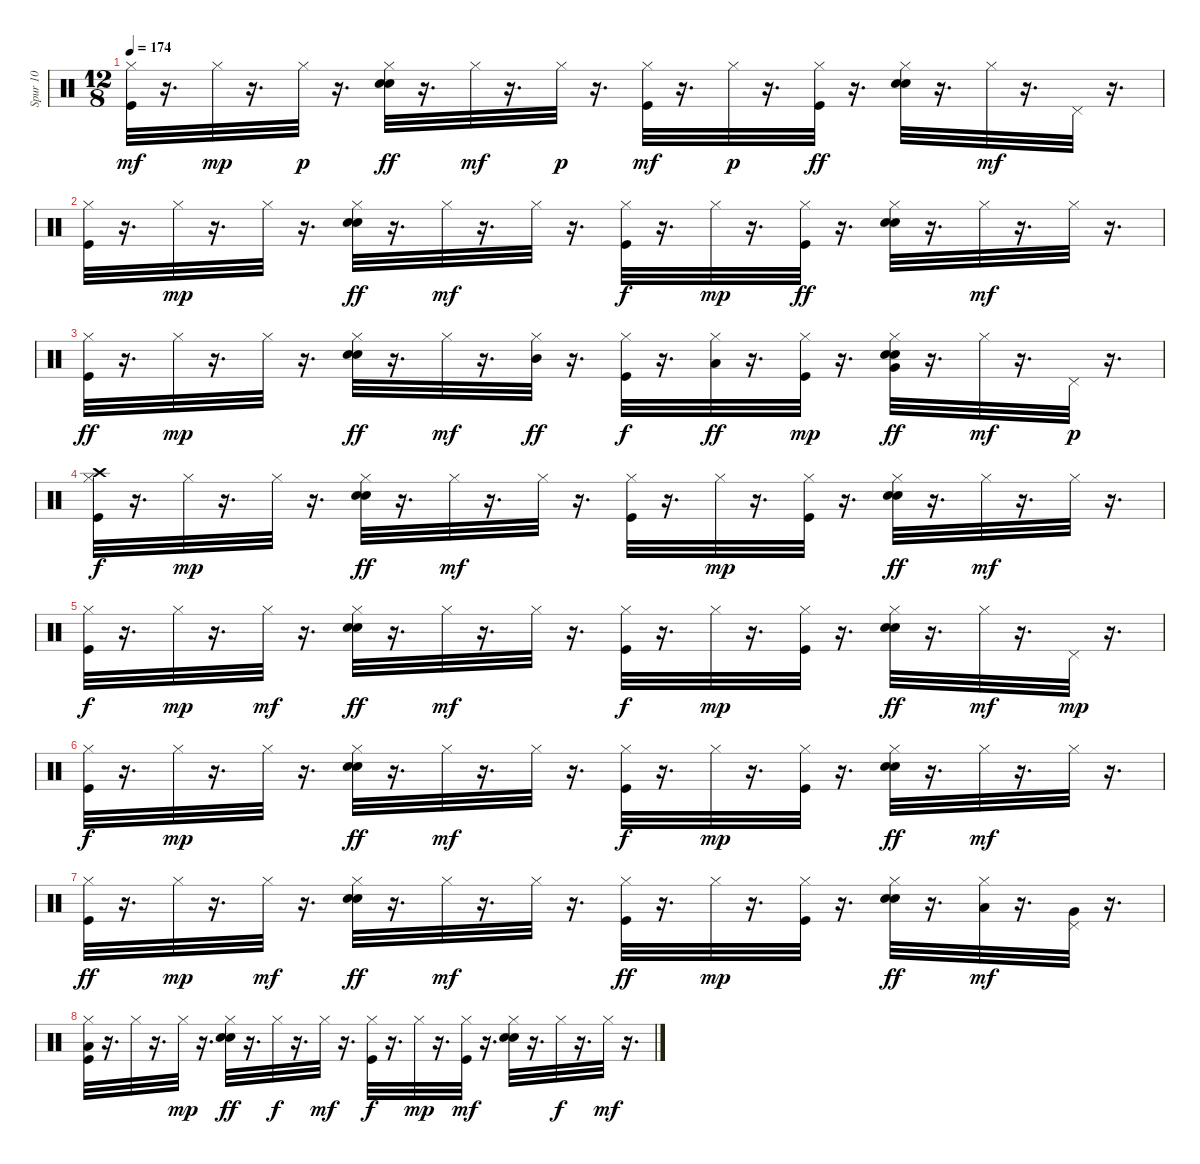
\track ("Spur 10" "Spur 10") {instrument percussion}
\staff {score}
\articulation defaults
\ts (12 8)
\tempo 174
\clef neutral
\ks c
("Hi-Hat (closed)" "Kick (hit)").32{dy mf} r.16{d} "Hi-Hat (closed)".32{dy mp} r.16{d} "Hi-Hat (closed)".32{dy p} r.16{d} ("Hi-Hat (closed)" "Electric Snare (hit)" "Hand Clap (hit)").32{dy ff} r.16{d} "Hi-Hat (closed)".32{dy mf} r.16{d} "Hi-Hat (closed)".32{dy p} r.16{d} ("Hi-Hat (closed)" "Kick (hit)").32{dy mf} r.16{d} "Hi-Hat (closed)".32{dy p} r.16{d} ("Hi-Hat (closed)" "Kick (hit)").32{dy ff} r.16{d} ("Hi-Hat (closed)" "Hand Clap (hit)" "Electric Snare (hit)").32 r.16{d} "Hi-Hat (closed)".32{dy mf} r.16{d} "Pedal Hi-Hat (hit)".32 r.16{d} |
("Hi-Hat (closed)" "Kick (hit)").32 r.16{d} "Hi-Hat (closed)".32{dy mp} r.16{d} "Hi-Hat (closed)".32 r.16{d} ("Hi-Hat (closed)" "Electric Snare (hit)" "Hand Clap (hit)").32{dy ff} r.16{d} "Hi-Hat (closed)".32{dy mf} r.16{d} "Hi-Hat (closed)".32 r.16{d} ("Hi-Hat (closed)" "Kick (hit)").32{dy f} r.16{d} "Hi-Hat (closed)".32{dy mp} r.16{d} ("Hi-Hat (closed)" "Kick (hit)").32{dy ff} r.16{d} ("Hi-Hat (closed)" "Hand Clap (hit)" "Electric Snare (hit)").32 r.16{d} "Hi-Hat (closed)".32{dy mf} r.16{d} "Hi-Hat (closed)".32 r.16{d} |
("Hi-Hat (closed)" "Kick (hit)").32{dy ff} r.16{d} "Hi-Hat (closed)".32{dy mp} r.16{d} "Hi-Hat (closed)".32 r.16{d} ("Hi-Hat (closed)" "Hand Clap (hit)" "Electric Snare (hit)").32{dy ff} r.16{d} "Hi-Hat (closed)".32{dy mf} r.16{d} ("Hi-Hat (closed)" "Mid Tom (hit)").32{dy ff} r.16{d} ("Hi-Hat (closed)" "Kick (hit)").32{dy f} r.16{d} ("Hi-Hat (closed)" "Low Tom (hit)").32{dy ff} r.16{d} ("Hi-Hat (closed)" "Kick (hit)").32{dy mp} r.16{d} ("Hand Clap (hit)" "Hi-Hat (closed)" "Very Low Tom (hit)" "Electric Snare (hit)").32{dy ff} r.16{d} "Hi-Hat (closed)".32{dy mf} r.16{d} "Pedal Hi-Hat (hit)".32{dy p} r.16{d} |
("Hi-Hat (closed)" "Kick (hit)" "Crash high (hit)").32{dy f} r.16{d} "Hi-Hat (closed)".32{dy mp} r.16{d} "Hi-Hat (closed)".32 r.16{d} ("Hand Clap (hit)" "Hi-Hat (closed)" "Electric Snare (hit)").32{dy ff} r.16{d} "Hi-Hat (closed)".32{dy mf} r.16{d} "Hi-Hat (closed)".32 r.16{d} ("Kick (hit)" "Hi-Hat (closed)").32 r.16{d} "Hi-Hat (closed)".32{dy mp} r.16{d} ("Kick (hit)" "Hi-Hat (closed)").32 r.16{d} ("Hand Clap (hit)" "Hi-Hat (closed)" "Electric Snare (hit)").32{dy ff} r.16{d} "Hi-Hat (closed)".32{dy mf} r.16{d} "Hi-Hat (closed)".32 r.16{d} |
("Hi-Hat (closed)" "Kick (hit)").32{dy f} r.16{d} "Hi-Hat (closed)".32{dy mp} r.16{d} "Hi-Hat (closed)".32{dy mf} r.16{d} ("Hi-Hat (closed)" "Electric Snare (hit)" "Hand Clap (hit)").32{dy ff} r.16{d} "Hi-Hat (closed)".32{dy mf} r.16{d} "Hi-Hat (closed)".32 r.16{d} ("Hi-Hat (closed)" "Kick (hit)").32{dy f} r.16{d} "Hi-Hat (closed)".32{dy mp} r.16{d} ("Hi-Hat (closed)" "Kick (hit)").32 r.16{d} ("Hi-Hat (closed)" "Hand Clap (hit)" "Electric Snare (hit)").32{dy ff} r.16{d} "Hi-Hat (closed)".32{dy mf} r.16{d} "Pedal Hi-Hat (hit)".32{dy mp} r.16{d} |
("Hi-Hat (closed)" "Kick (hit)").32{dy f} r.16{d} "Hi-Hat (closed)".32{dy mp} r.16{d} "Hi-Hat (closed)".32 r.16{d} ("Hi-Hat (closed)" "Hand Clap (hit)" "Electric Snare (hit)").32{dy ff} r.16{d} "Hi-Hat (closed)".32{dy mf} r.16{d} "Hi-Hat (closed)".32 r.16{d} ("Kick (hit)" "Hi-Hat (closed)").32{dy f} r.16{d} "Hi-Hat (closed)".32{dy mp} r.16{d} ("Hi-Hat (closed)" "Kick (hit)").32 r.16{d} ("Hi-Hat (closed)" "Hand Clap (hit)" "Electric Snare (hit)").32{dy ff} r.16{d} "Hi-Hat (closed)".32{dy mf} r.16{d} "Hi-Hat (closed)".32 r.16{d} |
("Kick (hit)" "Hi-Hat (closed)").32{dy ff} r.16{d} "Hi-Hat (closed)".32{dy mp} r.16{d} "Hi-Hat (closed)".32{dy mf} r.16{d} ("Hi-Hat (closed)" "Electric Snare (hit)" "Hand Clap (hit)").32{dy ff} r.16{d} "Hi-Hat (closed)".32{dy mf} r.16{d} "Hi-Hat (closed)".32 r.16{d} ("Kick (hit)" "Hi-Hat (closed)").32{dy ff} r.16{d} "Hi-Hat (closed)".32{dy mp} r.16{d} ("Hi-Hat (closed)" "Kick (hit)").32 r.16{d} ("Hi-Hat (closed)" "Electric Snare (hit)" "Hand Clap (hit)").32{dy ff} r.16{d} ("Hi-Hat (closed)" "Low Tom (hit)").32{dy mf} r.16{d} ("Very Low Tom (hit)" "Pedal Hi-Hat (hit)").32 r.16{d} |
("Hi-Hat (closed)" "Kick (hit)" "Low Floor Tom (hit)").32 r.16{d} "Hi-Hat (closed)".32 r.16{d} "Hi-Hat (closed)".32{dy mp} r.16{d} ("Hi-Hat (closed)" "Hand Clap (hit)" "Electric Snare (hit)").32{dy ff} r.16{d} "Hi-Hat (closed)".32{dy f} r.16{d} "Hi-Hat (closed)".32{dy mf} r.16{d} ("Kick (hit)" "Hi-Hat (closed)").32{dy f} r.16{d} "Hi-Hat (closed)".32{dy mp} r.16{d} ("Hi-Hat (closed)" "Kick (hit)").32{dy mf} r.16{d} ("Electric Snare (hit)" "Hand Clap (hit)" "Hi-Hat (closed)").32 r.16{d} "Hi-Hat (closed)".32{dy f} r.16{d} "Hi-Hat (closed)".32{dy mf} r.16{d}
